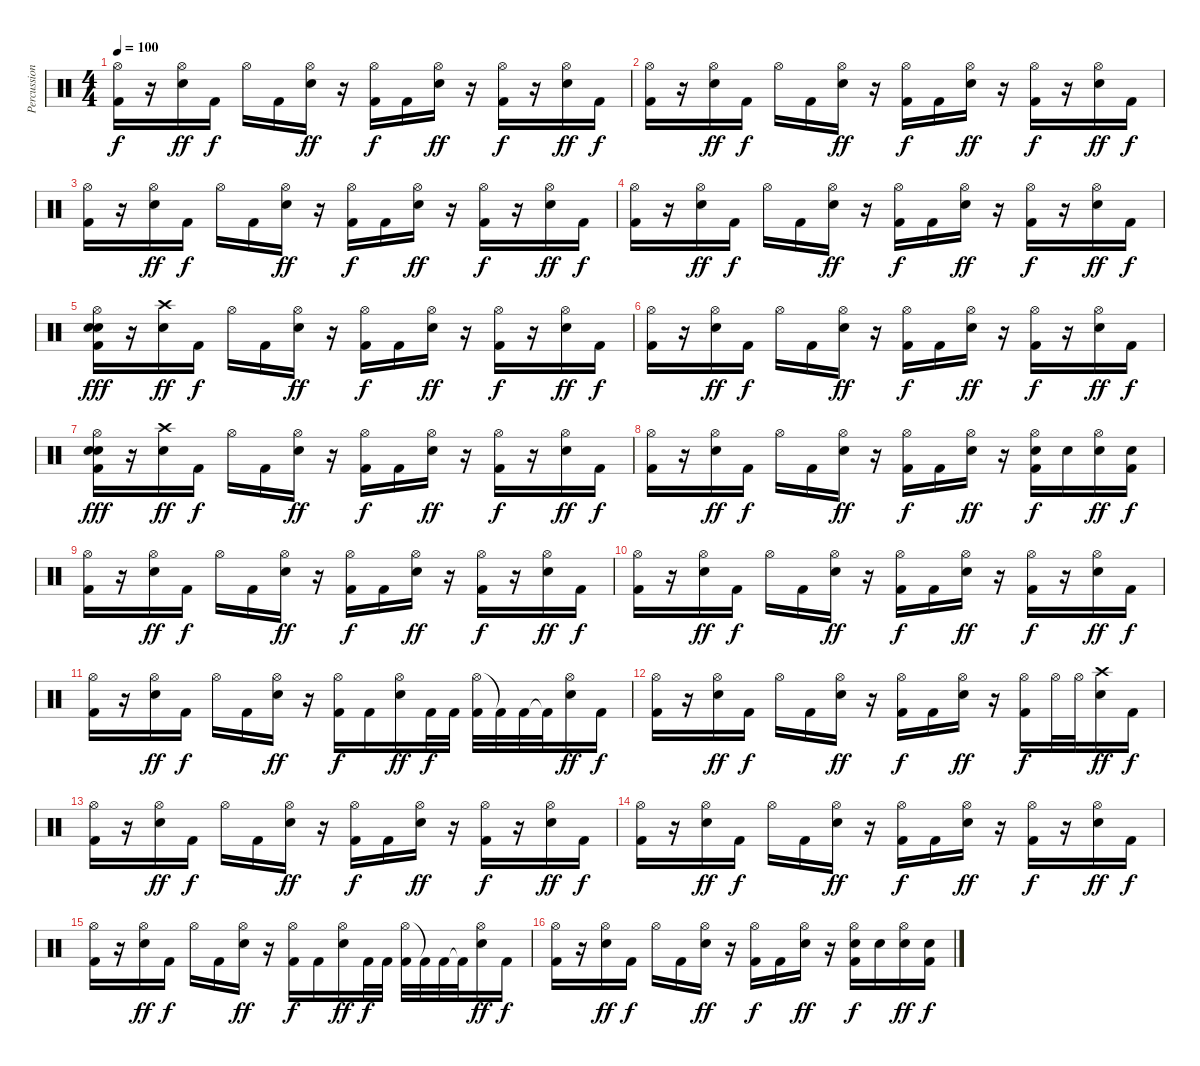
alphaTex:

\track ("Percussion" "Percussion") {instrument percussion}
\staff {score}
\articulation defaults
\ts (4 4)
\tempo 100
\clef neutral
\ks c
("Hi-Hat (open)" "Kick (hit) 2").16{dy f} r.16 ("Hi-Hat (open)" "Electric Snare (hit)").16{dy ff} "Kick (hit) 2".16{dy f} "Hi-Hat (open)".16 "Kick (hit) 2".16 ("Hi-Hat (open)" "Electric Snare (hit)").16{dy ff} r.16 ("Hi-Hat (open)" "Kick (hit) 2").16{dy f} "Kick (hit) 2".16 ("Hi-Hat (open)" "Electric Snare (hit)").16{dy ff} r.16 ("Hi-Hat (open)" "Kick (hit) 2").16{dy f} r.16 ("Hi-Hat (open)" "Electric Snare (hit)").16{dy ff} "Kick (hit) 2".16{dy f} |
("Hi-Hat (open)" "Kick (hit) 2").16 r.16 ("Hi-Hat (open)" "Electric Snare (hit)").16{dy ff} "Kick (hit) 2".16{dy f} "Hi-Hat (open)".16 "Kick (hit) 2".16 ("Hi-Hat (open)" "Electric Snare (hit)").16{dy ff} r.16 ("Hi-Hat (open)" "Kick (hit) 2").16{dy f} "Kick (hit) 2".16 ("Hi-Hat (open)" "Electric Snare (hit)").16{dy ff} r.16 ("Hi-Hat (open)" "Kick (hit) 2").16{dy f} r.16 ("Hi-Hat (open)" "Electric Snare (hit)").16{dy ff} "Kick (hit) 2".16{dy f} |
("Hi-Hat (open)" "Kick (hit) 2").16 r.16 ("Hi-Hat (open)" "Electric Snare (hit)").16{dy ff} "Kick (hit) 2".16{dy f} "Hi-Hat (open)".16 "Kick (hit) 2".16 ("Hi-Hat (open)" "Electric Snare (hit)").16{dy ff} r.16 ("Hi-Hat (open)" "Kick (hit) 2").16{dy f} "Kick (hit) 2".16 ("Hi-Hat (open)" "Electric Snare (hit)").16{dy ff} r.16 ("Hi-Hat (open)" "Kick (hit) 2").16{dy f} r.16 ("Hi-Hat (open)" "Electric Snare (hit)").16{dy ff} "Kick (hit) 2".16{dy f} |
("Hi-Hat (open)" "Kick (hit) 2").16 r.16 ("Hi-Hat (open)" "Electric Snare (hit)").16{dy ff} "Kick (hit) 2".16{dy f} "Hi-Hat (open)".16 "Kick (hit) 2".16 ("Hi-Hat (open)" "Electric Snare (hit)").16{dy ff} r.16 ("Hi-Hat (open)" "Kick (hit) 2").16{dy f} "Kick (hit) 2".16 ("Hi-Hat (open)" "Electric Snare (hit)").16{dy ff} r.16 ("Hi-Hat (open)" "Kick (hit) 2").16{dy f} r.16 ("Hi-Hat (open)" "Electric Snare (hit)").16{dy ff} "Kick (hit) 2".16{dy f} |
("Hi-Hat (open)" "Snare (hit) 2" "Electric Snare (hit)" "Kick (hit) 2").16{dy fff} r.16 ("Crash high (hit)" "Electric Snare (hit)").16{dy ff} "Kick (hit) 2".16{dy f} "Hi-Hat (open)".16 "Kick (hit) 2".16 ("Hi-Hat (open)" "Electric Snare (hit)").16{dy ff} r.16 ("Hi-Hat (open)" "Kick (hit) 2").16{dy f} "Kick (hit) 2".16 ("Hi-Hat (open)" "Electric Snare (hit)").16{dy ff} r.16 ("Hi-Hat (open)" "Kick (hit) 2").16{dy f} r.16 ("Hi-Hat (open)" "Electric Snare (hit)").16{dy ff} "Kick (hit) 2".16{dy f} |
("Hi-Hat (open)" "Kick (hit) 2").16 r.16 ("Hi-Hat (open)" "Electric Snare (hit)").16{dy ff} "Kick (hit) 2".16{dy f} "Hi-Hat (open)".16 "Kick (hit) 2".16 ("Hi-Hat (open)" "Electric Snare (hit)").16{dy ff} r.16 ("Hi-Hat (open)" "Kick (hit) 2").16{dy f} "Kick (hit) 2".16 ("Hi-Hat (open)" "Electric Snare (hit)").16{dy ff} r.16 ("Hi-Hat (open)" "Kick (hit) 2").16{dy f} r.16 ("Hi-Hat (open)" "Electric Snare (hit)").16{dy ff} "Kick (hit) 2".16{dy f} |
("Hi-Hat (open)" "Snare (hit) 2" "Electric Snare (hit)" "Kick (hit) 2").16{dy fff} r.16 ("Crash high (hit)" "Electric Snare (hit)").16{dy ff} "Kick (hit) 2".16{dy f} "Hi-Hat (open)".16 "Kick (hit) 2".16 ("Hi-Hat (open)" "Electric Snare (hit)").16{dy ff} r.16 ("Hi-Hat (open)" "Kick (hit) 2").16{dy f} "Kick (hit) 2".16 ("Hi-Hat (open)" "Electric Snare (hit)").16{dy ff} r.16 ("Hi-Hat (open)" "Kick (hit) 2").16{dy f} r.16 ("Hi-Hat (open)" "Electric Snare (hit)").16{dy ff} "Kick (hit) 2".16{dy f} |
("Hi-Hat (open)" "Kick (hit) 2").16 r.16 ("Hi-Hat (open)" "Electric Snare (hit)").16{dy ff} "Kick (hit) 2".16{dy f} "Hi-Hat (open)".16 "Kick (hit) 2".16 ("Hi-Hat (open)" "Electric Snare (hit)").16{dy ff} r.16 ("Hi-Hat (open)" "Kick (hit) 2").16{dy f} "Kick (hit) 2".16 ("Hi-Hat (open)" "Electric Snare (hit)").16{dy ff} r.16 ("Hi-Hat (open)" "Electric Snare (hit)" "Kick (hit) 2").16{dy f} "Electric Snare (hit)".16 ("Hi-Hat (open)" "Electric Snare (hit)").16{dy ff} ("Electric Snare (hit)" "Kick (hit) 2").16{dy f} |
("Hi-Hat (open)" "Kick (hit) 2").16 r.16 ("Hi-Hat (open)" "Electric Snare (hit)").16{dy ff} "Kick (hit) 2".16{dy f} "Hi-Hat (open)".16 "Kick (hit) 2".16 ("Hi-Hat (open)" "Electric Snare (hit)").16{dy ff} r.16 ("Hi-Hat (open)" "Kick (hit) 2").16{dy f} "Kick (hit) 2".16 ("Hi-Hat (open)" "Electric Snare (hit)").16{dy ff} r.16 ("Hi-Hat (open)" "Kick (hit) 2").16{dy f} r.16 ("Hi-Hat (open)" "Electric Snare (hit)").16{dy ff} "Kick (hit) 2".16{dy f} |
("Hi-Hat (open)" "Kick (hit) 2").16 r.16 ("Hi-Hat (open)" "Electric Snare (hit)").16{dy ff} "Kick (hit) 2".16{dy f} "Hi-Hat (open)".16 "Kick (hit) 2".16 ("Hi-Hat (open)" "Electric Snare (hit)").16{dy ff} r.16 ("Hi-Hat (open)" "Kick (hit) 2").16{dy f} "Kick (hit) 2".16 ("Hi-Hat (open)" "Electric Snare (hit)").16{dy ff} r.16 ("Hi-Hat (open)" "Kick (hit) 2").16{dy f} r.16 ("Hi-Hat (open)" "Electric Snare (hit)").16{dy ff} "Kick (hit) 2".16{dy f} |
("Hi-Hat (open)" "Kick (hit) 2").16 r.16 ("Hi-Hat (open)" "Electric Snare (hit)").16{dy ff} "Kick (hit) 2".16{dy f} "Hi-Hat (open)".16 "Kick (hit) 2".16 ("Hi-Hat (open)" "Electric Snare (hit)").16{dy ff} r.16 ("Hi-Hat (open)" "Kick (hit) 2").16{dy f} "Kick (hit) 2".16 ("Hi-Hat (open)" "Electric Snare (hit)").16{dy ff} "Kick (hit) 2".32{dy f} "Kick (hit) 2".32 ("Hi-Hat (open)" "Kick (hit) 2").32 "Kick (hit) 2"{t}.32 "Kick (hit) 2".32 "Kick (hit) 2"{t}.32 ("Hi-Hat (open)" "Electric Snare (hit)").16{dy ff} "Kick (hit) 2".16{dy f} |
("Hi-Hat (open)" "Kick (hit) 2").16 r.16 ("Hi-Hat (open)" "Electric Snare (hit)").16{dy ff} "Kick (hit) 2".16{dy f} "Hi-Hat (open)".16 "Kick (hit) 2".16 ("Hi-Hat (open)" "Electric Snare (hit)").16{dy ff} r.16 ("Hi-Hat (open)" "Kick (hit) 2").16{dy f} "Kick (hit) 2".16 ("Hi-Hat (open)" "Electric Snare (hit)").16{dy ff} r.16 ("Hi-Hat (open)" "Kick (hit) 2").16{dy f} "Hi-Hat (open)".32 "Hi-Hat (open)".32 ("Crash high (hit)" "Electric Snare (hit)").16{dy ff} "Kick (hit) 2".16{dy f} |
("Hi-Hat (open)" "Kick (hit) 2").16 r.16 ("Hi-Hat (open)" "Electric Snare (hit)").16{dy ff} "Kick (hit) 2".16{dy f} "Hi-Hat (open)".16 "Kick (hit) 2".16 ("Hi-Hat (open)" "Electric Snare (hit)").16{dy ff} r.16 ("Hi-Hat (open)" "Kick (hit) 2").16{dy f} "Kick (hit) 2".16 ("Hi-Hat (open)" "Electric Snare (hit)").16{dy ff} r.16 ("Hi-Hat (open)" "Kick (hit) 2").16{dy f} r.16 ("Hi-Hat (open)" "Electric Snare (hit)").16{dy ff} "Kick (hit) 2".16{dy f} |
("Hi-Hat (open)" "Kick (hit) 2").16 r.16 ("Hi-Hat (open)" "Electric Snare (hit)").16{dy ff} "Kick (hit) 2".16{dy f} "Hi-Hat (open)".16 "Kick (hit) 2".16 ("Hi-Hat (open)" "Electric Snare (hit)").16{dy ff} r.16 ("Hi-Hat (open)" "Kick (hit) 2").16{dy f} "Kick (hit) 2".16 ("Hi-Hat (open)" "Electric Snare (hit)").16{dy ff} r.16 ("Hi-Hat (open)" "Kick (hit) 2").16{dy f} r.16 ("Hi-Hat (open)" "Electric Snare (hit)").16{dy ff} "Kick (hit) 2".16{dy f} |
("Hi-Hat (open)" "Kick (hit) 2").16 r.16 ("Hi-Hat (open)" "Electric Snare (hit)").16{dy ff} "Kick (hit) 2".16{dy f} "Hi-Hat (open)".16 "Kick (hit) 2".16 ("Hi-Hat (open)" "Electric Snare (hit)").16{dy ff} r.16 ("Hi-Hat (open)" "Kick (hit) 2").16{dy f} "Kick (hit) 2".16 ("Hi-Hat (open)" "Electric Snare (hit)").16{dy ff} "Kick (hit) 2".32{dy f} "Kick (hit) 2".32 ("Hi-Hat (open)" "Kick (hit) 2").32 "Kick (hit) 2"{t}.32 "Kick (hit) 2".32 "Kick (hit) 2"{t}.32 ("Hi-Hat (open)" "Electric Snare (hit)").16{dy ff} "Kick (hit) 2".16{dy f} |
("Hi-Hat (open)" "Kick (hit) 2").16 r.16 ("Hi-Hat (open)" "Electric Snare (hit)").16{dy ff} "Kick (hit) 2".16{dy f} "Hi-Hat (open)".16 "Kick (hit) 2".16 ("Hi-Hat (open)" "Electric Snare (hit)").16{dy ff} r.16 ("Hi-Hat (open)" "Kick (hit) 2").16{dy f} "Kick (hit) 2".16 ("Hi-Hat (open)" "Electric Snare (hit)").16{dy ff} r.16 ("Hi-Hat (open)" "Electric Snare (hit)" "Kick (hit) 2").16{dy f} "Electric Snare (hit)".16 ("Hi-Hat (open)" "Electric Snare (hit)").16{dy ff} ("Electric Snare (hit)" "Kick (hit) 2").16{dy f}
